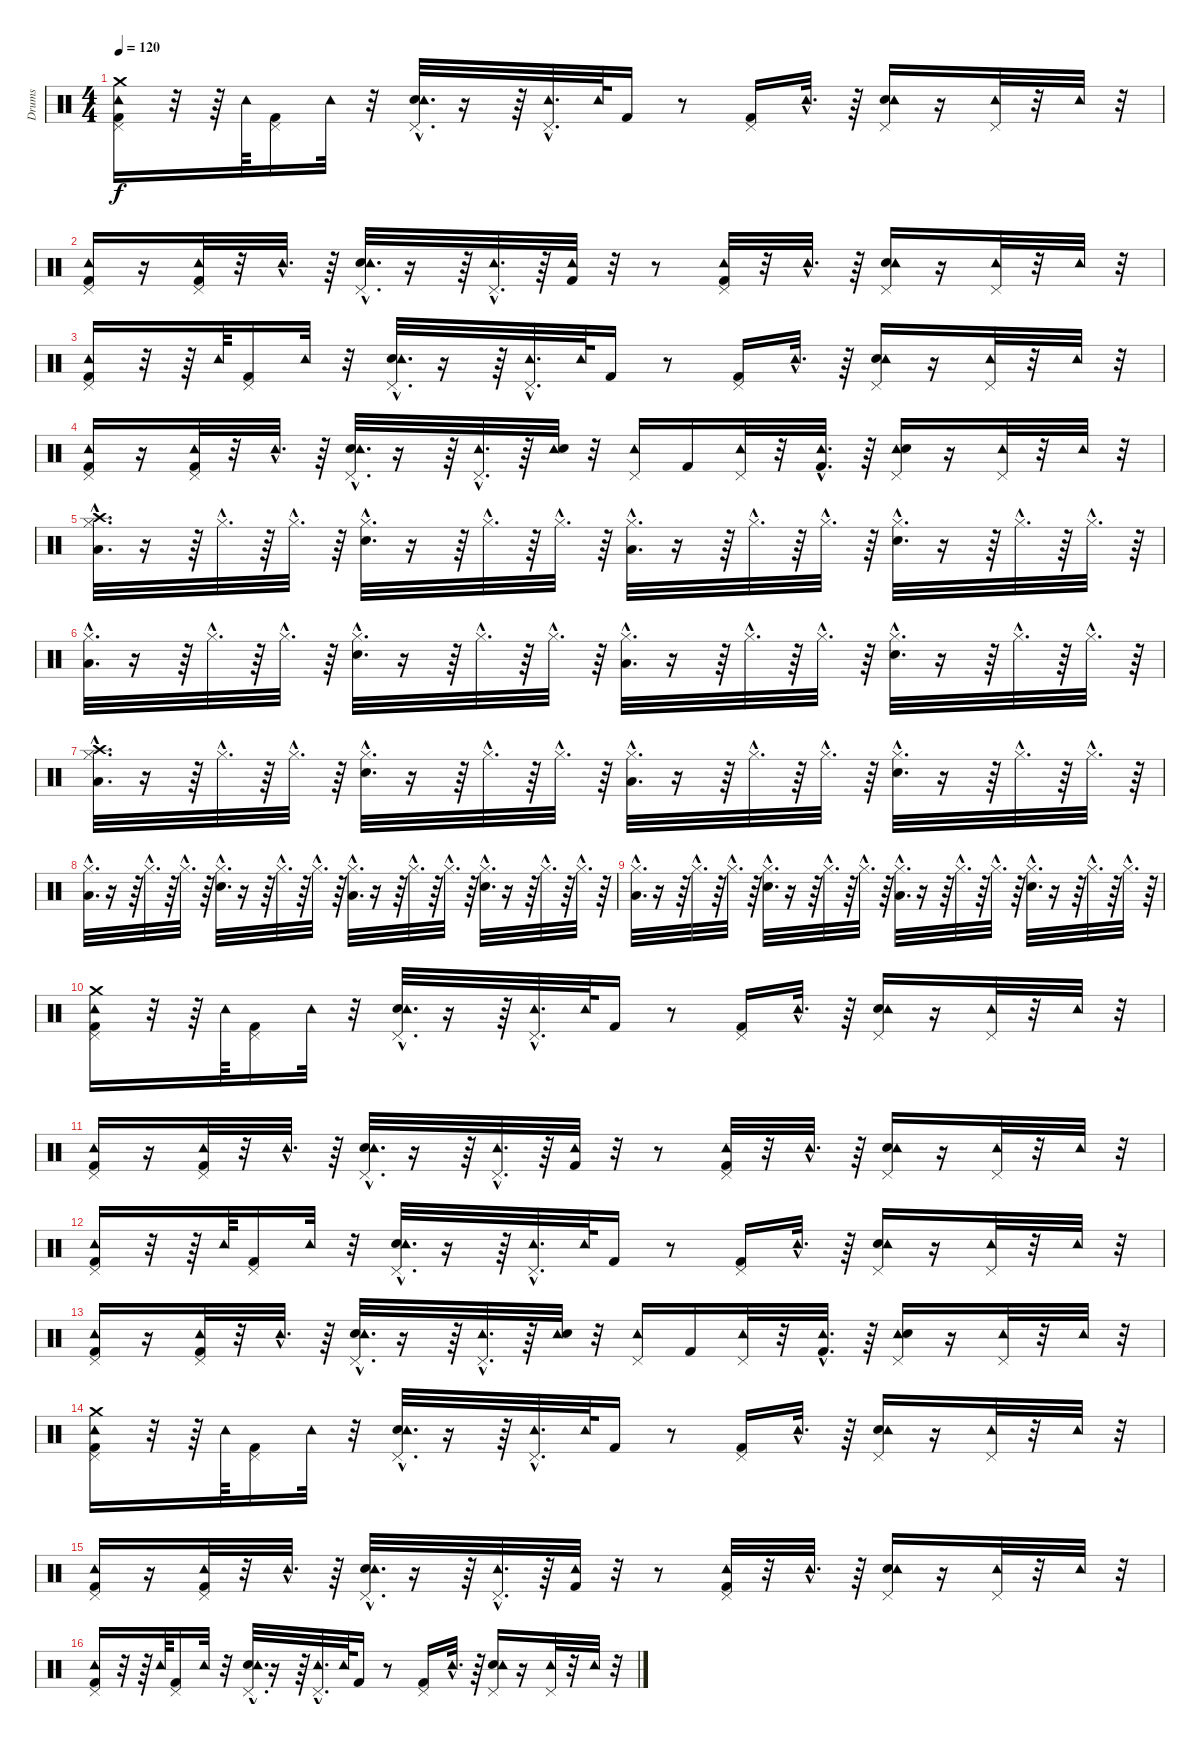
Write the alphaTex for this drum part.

\track ("Drums" "Drums") {instrument percussion}
\staff {score}
\articulation defaults
\ts (4 4)
\tempo 120
\clef neutral
\ks c
("Tambourine (hit)" "Pedal Hi-Hat (hit)" "Kick (hit) 2" "Crash medium (hit)").16{dy f} r.32 r.64 "Tambourine (hit)".64 ("Kick (hit) 2" "Pedal Hi-Hat (hit)").16 "Tambourine (hit)".32 r.32 ("Electric Snare (hit)"{hac} "Pedal Hi-Hat (hit)"{hac} "Tambourine (hit)"{hac}).32{d} r.16 r.64 ("Pedal Hi-Hat (hit)"{hac} "Tambourine (hit)"{hac}).32{d} "Tambourine (hit)".64 "Kick (hit) 2".16 r.8 ("Kick (hit) 2" "Pedal Hi-Hat (hit)").16 "Tambourine (hit)"{hac}.32{d} r.64 ("Electric Snare (hit)" "Pedal Hi-Hat (hit)" "Tambourine (hit)").16 r.16 ("Pedal Hi-Hat (hit)" "Tambourine (hit)").32 r.32 "Tambourine (hit)".32 r.32 |
("Kick (hit) 2" "Pedal Hi-Hat (hit)" "Tambourine (hit)").16 r.16 ("Kick (hit) 2" "Pedal Hi-Hat (hit)" "Tambourine (hit)").32 r.32 "Tambourine (hit)"{hac}.32{d} r.64 ("Electric Snare (hit)"{hac} "Pedal Hi-Hat (hit)"{hac} "Tambourine (hit)"{hac}).32{d} r.16 r.64 ("Pedal Hi-Hat (hit)"{hac} "Tambourine (hit)"{hac}).32{d} r.64 ("Kick (hit) 2" "Tambourine (hit)").32 r.32 r.8 ("Kick (hit) 2" "Pedal Hi-Hat (hit)" "Tambourine (hit)").32 r.32 "Tambourine (hit)"{hac}.32{d} r.64 ("Electric Snare (hit)" "Pedal Hi-Hat (hit)" "Tambourine (hit)").16 r.16 ("Pedal Hi-Hat (hit)" "Tambourine (hit)").32 r.32 "Tambourine (hit)".32 r.32 |
("Kick (hit) 2" "Pedal Hi-Hat (hit)" "Tambourine (hit)").16 r.32 r.64 "Tambourine (hit)".64 ("Kick (hit) 2" "Pedal Hi-Hat (hit)").16 "Tambourine (hit)".32 r.32 ("Electric Snare (hit)"{hac} "Pedal Hi-Hat (hit)"{hac} "Tambourine (hit)"{hac}).32{d} r.16 r.64 ("Pedal Hi-Hat (hit)"{hac} "Tambourine (hit)"{hac}).32{d} "Tambourine (hit)".64 "Kick (hit) 2".16 r.8 ("Kick (hit) 2" "Pedal Hi-Hat (hit)").16 "Tambourine (hit)"{hac}.32{d} r.64 ("Electric Snare (hit)" "Pedal Hi-Hat (hit)" "Tambourine (hit)").16 r.16 ("Pedal Hi-Hat (hit)" "Tambourine (hit)").32 r.32 "Tambourine (hit)".32 r.32 |
("Kick (hit) 2" "Pedal Hi-Hat (hit)" "Tambourine (hit)").16 r.16 ("Kick (hit) 2" "Pedal Hi-Hat (hit)" "Tambourine (hit)").32 r.32 "Tambourine (hit)"{hac}.32{d} r.64 ("Electric Snare (hit)"{hac} "Pedal Hi-Hat (hit)"{hac} "Tambourine (hit)"{hac}).32{d} r.16 r.64 ("Pedal Hi-Hat (hit)"{hac} "Tambourine (hit)"{hac}).32{d} r.64 ("Tambourine (hit)" "Electric Snare (hit)").32 r.32 ("Pedal Hi-Hat (hit)" "Tambourine (hit)").16 "Kick (hit) 2".16 ("Pedal Hi-Hat (hit)" "Tambourine (hit)").32 r.32 ("Tambourine (hit)"{hac} "Kick (hit) 2"{hac}).32{d} r.64 ("Pedal Hi-Hat (hit)" "Tambourine (hit)" "Electric Snare (hit)").16 r.16 ("Pedal Hi-Hat (hit)" "Tambourine (hit)").32 r.32 "Tambourine (hit)".32 r.32 |
("Hi-Hat (closed)"{hac} "Crash high (hit)"{hac} "Low Tom (hit)"{hac}).32{d} r.16 r.64 "Hi-Hat (closed)"{hac}.32{d} r.64 "Hi-Hat (closed)"{hac}.32{d} r.64 ("Hi-Hat (closed)"{hac} "Snare (hit) 2"{hac}).32{d} r.16 r.64 "Hi-Hat (closed)"{hac}.32{d} r.64 "Hi-Hat (closed)"{hac}.32{d} r.64 ("Hi-Hat (closed)"{hac} "Low Tom (hit)"{hac}).32{d} r.16 r.64 "Hi-Hat (closed)"{hac}.32{d} r.64 "Hi-Hat (closed)"{hac}.32{d} r.64 ("Hi-Hat (closed)"{hac} "Snare (hit) 2"{hac}).32{d} r.16 r.64 "Hi-Hat (closed)"{hac}.32{d} r.64 "Hi-Hat (closed)"{hac}.32{d} r.64 |
("Hi-Hat (closed)"{hac} "Low Tom (hit)"{hac}).32{d} r.16 r.64 "Hi-Hat (closed)"{hac}.32{d} r.64 "Hi-Hat (closed)"{hac}.32{d} r.64 ("Hi-Hat (closed)"{hac} "Snare (hit) 2"{hac}).32{d} r.16 r.64 "Hi-Hat (closed)"{hac}.32{d} r.64 "Hi-Hat (closed)"{hac}.32{d} r.64 ("Hi-Hat (closed)"{hac} "Low Tom (hit)"{hac}).32{d} r.16 r.64 "Hi-Hat (closed)"{hac}.32{d} r.64 "Hi-Hat (closed)"{hac}.32{d} r.64 ("Hi-Hat (closed)"{hac} "Snare (hit) 2"{hac}).32{d} r.16 r.64 "Hi-Hat (closed)"{hac}.32{d} r.64 "Hi-Hat (closed)"{hac}.32{d} r.64 |
("Hi-Hat (closed)"{hac} "Crash high (hit)"{hac} "Low Tom (hit)"{hac}).32{d} r.16 r.64 "Hi-Hat (closed)"{hac}.32{d} r.64 "Hi-Hat (closed)"{hac}.32{d} r.64 ("Hi-Hat (closed)"{hac} "Snare (hit) 2"{hac}).32{d} r.16 r.64 "Hi-Hat (closed)"{hac}.32{d} r.64 "Hi-Hat (closed)"{hac}.32{d} r.64 ("Hi-Hat (closed)"{hac} "Low Tom (hit)"{hac}).32{d} r.16 r.64 "Hi-Hat (closed)"{hac}.32{d} r.64 "Hi-Hat (closed)"{hac}.32{d} r.64 ("Hi-Hat (closed)"{hac} "Snare (hit) 2"{hac}).32{d} r.16 r.64 "Hi-Hat (closed)"{hac}.32{d} r.64 "Hi-Hat (closed)"{hac}.32{d} r.64 |
("Hi-Hat (closed)"{hac} "Low Tom (hit)"{hac}).32{d} r.16 r.64 "Hi-Hat (closed)"{hac}.32{d} r.64 "Hi-Hat (closed)"{hac}.32{d} r.64 ("Hi-Hat (closed)"{hac} "Snare (hit) 2"{hac}).32{d} r.16 r.64 "Hi-Hat (closed)"{hac}.32{d} r.64 "Hi-Hat (closed)"{hac}.32{d} r.64 ("Hi-Hat (closed)"{hac} "Low Tom (hit)"{hac}).32{d} r.16 r.64 "Hi-Hat (closed)"{hac}.32{d} r.64 "Hi-Hat (closed)"{hac}.32{d} r.64 ("Hi-Hat (closed)"{hac} "Snare (hit) 2"{hac}).32{d} r.16 r.64 "Hi-Hat (closed)"{hac}.32{d} r.64 "Hi-Hat (closed)"{hac}.32{d} r.64 |
("Hi-Hat (closed)"{hac} "Low Tom (hit)"{hac}).32{d} r.16 r.64 "Hi-Hat (closed)"{hac}.32{d} r.64 "Hi-Hat (closed)"{hac}.32{d} r.64 ("Hi-Hat (closed)"{hac} "Snare (hit) 2"{hac}).32{d} r.16 r.64 "Hi-Hat (closed)"{hac}.32{d} r.64 "Hi-Hat (closed)"{hac}.32{d} r.64 ("Hi-Hat (closed)"{hac} "Low Tom (hit)"{hac}).32{d} r.16 r.64 "Hi-Hat (closed)"{hac}.32{d} r.64 "Hi-Hat (closed)"{hac}.32{d} r.64 ("Hi-Hat (closed)"{hac} "Snare (hit) 2"{hac}).32{d} r.16 r.64 "Hi-Hat (closed)"{hac}.32{d} r.64 "Hi-Hat (closed)"{hac}.32{d} r.64 |
("Tambourine (hit)" "Pedal Hi-Hat (hit)" "Kick (hit) 2" "Crash medium (hit)").16 r.32 r.64 "Tambourine (hit)".64 ("Kick (hit) 2" "Pedal Hi-Hat (hit)").16 "Tambourine (hit)".32 r.32 ("Electric Snare (hit)"{hac} "Pedal Hi-Hat (hit)"{hac} "Tambourine (hit)"{hac}).32{d} r.16 r.64 ("Pedal Hi-Hat (hit)"{hac} "Tambourine (hit)"{hac}).32{d} "Tambourine (hit)".64 "Kick (hit) 2".16 r.8 ("Kick (hit) 2" "Pedal Hi-Hat (hit)").16 "Tambourine (hit)"{hac}.32{d} r.64 ("Electric Snare (hit)" "Pedal Hi-Hat (hit)" "Tambourine (hit)").16 r.16 ("Pedal Hi-Hat (hit)" "Tambourine (hit)").32 r.32 "Tambourine (hit)".32 r.32 |
("Kick (hit) 2" "Pedal Hi-Hat (hit)" "Tambourine (hit)").16 r.16 ("Kick (hit) 2" "Pedal Hi-Hat (hit)" "Tambourine (hit)").32 r.32 "Tambourine (hit)"{hac}.32{d} r.64 ("Electric Snare (hit)"{hac} "Pedal Hi-Hat (hit)"{hac} "Tambourine (hit)"{hac}).32{d} r.16 r.64 ("Pedal Hi-Hat (hit)"{hac} "Tambourine (hit)"{hac}).32{d} r.64 ("Kick (hit) 2" "Tambourine (hit)").32 r.32 r.8 ("Kick (hit) 2" "Pedal Hi-Hat (hit)" "Tambourine (hit)").32 r.32 "Tambourine (hit)"{hac}.32{d} r.64 ("Electric Snare (hit)" "Pedal Hi-Hat (hit)" "Tambourine (hit)").16 r.16 ("Pedal Hi-Hat (hit)" "Tambourine (hit)").32 r.32 "Tambourine (hit)".32 r.32 |
("Kick (hit) 2" "Pedal Hi-Hat (hit)" "Tambourine (hit)").16 r.32 r.64 "Tambourine (hit)".64 ("Kick (hit) 2" "Pedal Hi-Hat (hit)").16 "Tambourine (hit)".32 r.32 ("Electric Snare (hit)"{hac} "Pedal Hi-Hat (hit)"{hac} "Tambourine (hit)"{hac}).32{d} r.16 r.64 ("Pedal Hi-Hat (hit)"{hac} "Tambourine (hit)"{hac}).32{d} "Tambourine (hit)".64 "Kick (hit) 2".16 r.8 ("Kick (hit) 2" "Pedal Hi-Hat (hit)").16 "Tambourine (hit)"{hac}.32{d} r.64 ("Electric Snare (hit)" "Pedal Hi-Hat (hit)" "Tambourine (hit)").16 r.16 ("Pedal Hi-Hat (hit)" "Tambourine (hit)").32 r.32 "Tambourine (hit)".32 r.32 |
("Kick (hit) 2" "Pedal Hi-Hat (hit)" "Tambourine (hit)").16 r.16 ("Kick (hit) 2" "Pedal Hi-Hat (hit)" "Tambourine (hit)").32 r.32 "Tambourine (hit)"{hac}.32{d} r.64 ("Electric Snare (hit)"{hac} "Pedal Hi-Hat (hit)"{hac} "Tambourine (hit)"{hac}).32{d} r.16 r.64 ("Pedal Hi-Hat (hit)"{hac} "Tambourine (hit)"{hac}).32{d} r.64 ("Tambourine (hit)" "Electric Snare (hit)").32 r.32 ("Pedal Hi-Hat (hit)" "Tambourine (hit)").16 "Kick (hit) 2".16 ("Pedal Hi-Hat (hit)" "Tambourine (hit)").32 r.32 ("Tambourine (hit)"{hac} "Kick (hit) 2"{hac}).32{d} r.64 ("Pedal Hi-Hat (hit)" "Tambourine (hit)" "Electric Snare (hit)").16 r.16 ("Pedal Hi-Hat (hit)" "Tambourine (hit)").32 r.32 "Tambourine (hit)".32 r.32 |
("Tambourine (hit)" "Pedal Hi-Hat (hit)" "Kick (hit) 2" "Crash medium (hit)").16 r.32 r.64 "Tambourine (hit)".64 ("Kick (hit) 2" "Pedal Hi-Hat (hit)").16 "Tambourine (hit)".32 r.32 ("Electric Snare (hit)"{hac} "Pedal Hi-Hat (hit)"{hac} "Tambourine (hit)"{hac}).32{d} r.16 r.64 ("Pedal Hi-Hat (hit)"{hac} "Tambourine (hit)"{hac}).32{d} "Tambourine (hit)".64 "Kick (hit) 2".16 r.8 ("Kick (hit) 2" "Pedal Hi-Hat (hit)").16 "Tambourine (hit)"{hac}.32{d} r.64 ("Electric Snare (hit)" "Pedal Hi-Hat (hit)" "Tambourine (hit)").16 r.16 ("Pedal Hi-Hat (hit)" "Tambourine (hit)").32 r.32 "Tambourine (hit)".32 r.32 |
("Kick (hit) 2" "Pedal Hi-Hat (hit)" "Tambourine (hit)").16 r.16 ("Kick (hit) 2" "Pedal Hi-Hat (hit)" "Tambourine (hit)").32 r.32 "Tambourine (hit)"{hac}.32{d} r.64 ("Electric Snare (hit)"{hac} "Pedal Hi-Hat (hit)"{hac} "Tambourine (hit)"{hac}).32{d} r.16 r.64 ("Pedal Hi-Hat (hit)"{hac} "Tambourine (hit)"{hac}).32{d} r.64 ("Kick (hit) 2" "Tambourine (hit)").32 r.32 r.8 ("Kick (hit) 2" "Pedal Hi-Hat (hit)" "Tambourine (hit)").32 r.32 "Tambourine (hit)"{hac}.32{d} r.64 ("Electric Snare (hit)" "Pedal Hi-Hat (hit)" "Tambourine (hit)").16 r.16 ("Pedal Hi-Hat (hit)" "Tambourine (hit)").32 r.32 "Tambourine (hit)".32 r.32 |
("Kick (hit) 2" "Pedal Hi-Hat (hit)" "Tambourine (hit)").16 r.32 r.64 "Tambourine (hit)".64 ("Kick (hit) 2" "Pedal Hi-Hat (hit)").16 "Tambourine (hit)".32 r.32 ("Electric Snare (hit)"{hac} "Pedal Hi-Hat (hit)"{hac} "Tambourine (hit)"{hac}).32{d} r.16 r.64 ("Pedal Hi-Hat (hit)"{hac} "Tambourine (hit)"{hac}).32{d} "Tambourine (hit)".64 "Kick (hit) 2".16 r.8 ("Kick (hit) 2" "Pedal Hi-Hat (hit)").16 "Tambourine (hit)"{hac}.32{d} r.64 ("Electric Snare (hit)" "Pedal Hi-Hat (hit)" "Tambourine (hit)").16 r.16 ("Pedal Hi-Hat (hit)" "Tambourine (hit)").32 r.32 "Tambourine (hit)".32 r.32
